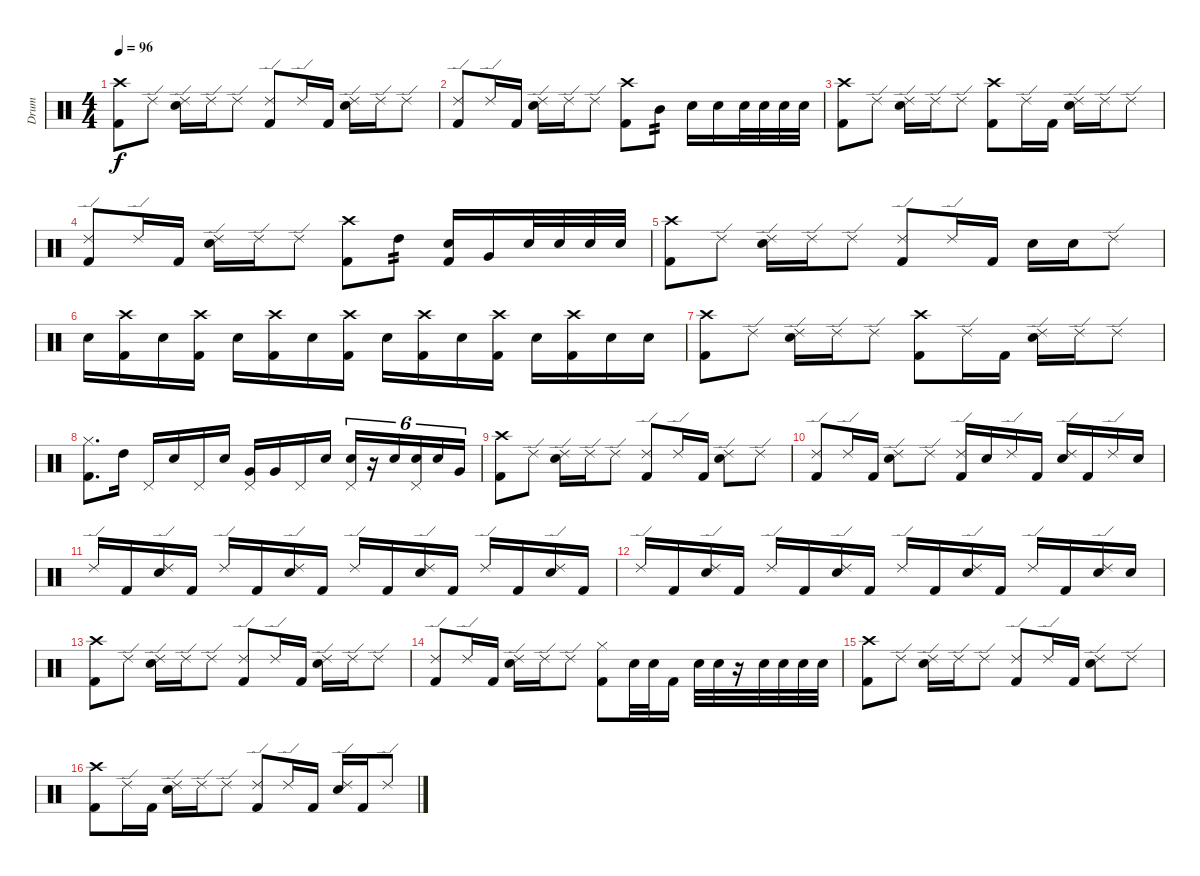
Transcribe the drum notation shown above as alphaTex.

\track ("Drum" "Drum") {instrument percussion}
\staff {score}
\articulation defaults
\ts (4 4)
\tempo 96
\clef neutral
\ks c
("Crash high (hit)" "Kick (hit) 2").8{dy f} "Ride (edge) 2".8 ("Ride (edge) 2" "Electric Snare (hit)").16 "Ride (edge) 2".16 "Ride (edge) 2".8 ("Ride (edge) 2" "Kick (hit) 2").8 "Ride (edge) 2".16 "Kick (hit) 2".16 ("Ride (edge) 2" "Electric Snare (hit)").16 "Ride (edge) 2".16 "Ride (edge) 2".8 |
("Ride (edge) 2" "Kick (hit) 2").8 "Ride (edge) 2".16 "Kick (hit) 2".16 ("Ride (edge) 2" "Electric Snare (hit)").16 "Ride (edge) 2".16 "Ride (edge) 2".8 ("Crash high (hit)" "Kick (hit) 2").8 "Mid Tom (hit)".8{tp 2} "Electric Snare (hit)".16 "Electric Snare (hit)".16 "Electric Snare (hit)".32 "Electric Snare (hit)".32 "Electric Snare (hit)".32 "Electric Snare (hit)".32 |
("Crash high (hit)" "Kick (hit) 2").8 "Ride (edge) 2".8 ("Ride (edge) 2" "Electric Snare (hit)").16 "Ride (edge) 2".16 "Ride (edge) 2".8 ("Crash high (hit)" "Kick (hit) 2").8 "Ride (edge) 2".16 "Kick (hit) 2".16 ("Ride (edge) 2" "Electric Snare (hit)").16 "Ride (edge) 2".16 "Ride (edge) 2".8 |
("Ride (edge) 2" "Kick (hit) 2").8 "Ride (edge) 2".16 "Kick (hit) 2".16 ("Ride (edge) 2" "Electric Snare (hit)").16 "Ride (edge) 2".16 "Ride (edge) 2".8 ("Crash high (hit)" "Kick (hit) 2").8 "High Tom (hit)".8{tp 2} ("Electric Snare (hit)" "Kick (hit) 2").16 "Very Low Tom (hit)".16 "Electric Snare (hit)".32 "Electric Snare (hit)".32 "Electric Snare (hit)".32 "Electric Snare (hit)".32 |
("Crash high (hit)" "Kick (hit) 2").8 "Ride (edge) 2".8 ("Ride (edge) 2" "Electric Snare (hit)").16 "Ride (edge) 2".16 "Ride (edge) 2".8 ("Ride (edge) 2" "Kick (hit) 2").8 "Ride (edge) 2".16 "Kick (hit) 2".16 "Electric Snare (hit)".16 "Electric Snare (hit)".16 "Ride (edge) 2".8 |
"Electric Snare (hit)".16 ("Crash high (hit)" "Kick (hit) 2").16 "Electric Snare (hit)".16 ("Crash high (hit)" "Kick (hit) 2").16 "Electric Snare (hit)".16 ("Crash high (hit)" "Kick (hit) 2").16 "Electric Snare (hit)".16 ("Crash high (hit)" "Kick (hit) 2").16 "Electric Snare (hit)".16 ("Crash high (hit)" "Kick (hit) 2").16 "Electric Snare (hit)".16 ("Crash high (hit)" "Kick (hit) 2").16 "Electric Snare (hit)".16 ("Crash high (hit)" "Kick (hit) 2").16 "Electric Snare (hit)".16 "Electric Snare (hit)".16 |
("Crash high (hit)" "Kick (hit) 2").8 "Ride (edge) 2".8 ("Ride (edge) 2" "Electric Snare (hit)").16 "Ride (edge) 2".16 "Ride (edge) 2".8 ("Crash high (hit)" "Kick (hit) 2").8 "Ride (edge) 2".16 "Kick (hit) 2".16 ("Ride (edge) 2" "Electric Snare (hit)").16 "Ride (edge) 2".16 "Ride (edge) 2".8 |
("Hi-Hat (closed)" "Kick (hit) 2").8{d} "High Tom (hit)".16 "Pedal Hi-Hat (hit)".16 "Electric Snare (hit)".16 "Pedal Hi-Hat (hit)".16 "Electric Snare (hit)".16 ("Very Low Tom (hit)" "Pedal Hi-Hat (hit)").16 "Very Low Tom (hit)".16 "Pedal Hi-Hat (hit)".16 "Electric Snare (hit)".16 ("Electric Snare (hit)" "Pedal Hi-Hat (hit)").16{tu (6 4)} r.16{tu (6 4)} "Electric Snare (hit)".16{tu (6 4)} ("Electric Snare (hit)" "Pedal Hi-Hat (hit)").16{tu (6 4)} "Electric Snare (hit)".16{tu (6 4)} "Very Low Tom (hit)".16{tu (6 4)} |
("Crash high (hit)" "Kick (hit) 2").8 "Ride (edge) 2".8 ("Ride (edge) 2" "Electric Snare (hit)").16 "Ride (edge) 2".16 "Ride (edge) 2".8 ("Ride (edge) 2" "Kick (hit) 2").8 "Ride (edge) 2".16 "Kick (hit) 2".16 ("Ride (edge) 2" "Electric Snare (hit)").8 "Ride (edge) 2".8 |
("Ride (edge) 2" "Kick (hit) 2").8 "Ride (edge) 2".16 "Kick (hit) 2".16 ("Ride (edge) 2" "Electric Snare (hit)").8 "Ride (edge) 2".8 ("Ride (edge) 2" "Kick (hit) 2").16 "Electric Snare (hit)".16 "Ride (edge) 2".16 "Kick (hit) 2".16 ("Ride (edge) 2" "Electric Snare (hit)").16 "Kick (hit) 2".16 "Ride (edge) 2".16 "Electric Snare (hit)".16 |
"Ride (edge) 2".16 "Kick (hit) 2".16 ("Ride (edge) 2" "Electric Snare (hit)").16 "Kick (hit) 2".16 "Ride (edge) 2".16 "Kick (hit) 2".16 ("Ride (edge) 2" "Electric Snare (hit)").16 "Kick (hit) 2".16 "Ride (edge) 2".16 "Kick (hit) 2".16 ("Ride (edge) 2" "Electric Snare (hit)").16 "Kick (hit) 2".16 "Ride (edge) 2".16 "Kick (hit) 2".16 ("Ride (edge) 2" "Electric Snare (hit)").16 "Kick (hit) 2".16 |
"Ride (edge) 2".16 "Kick (hit) 2".16 ("Ride (edge) 2" "Electric Snare (hit)").16 "Kick (hit) 2".16 "Ride (edge) 2".16 "Kick (hit) 2".16 ("Ride (edge) 2" "Electric Snare (hit)").16 "Kick (hit) 2".16 "Ride (edge) 2".16 "Kick (hit) 2".16 ("Ride (edge) 2" "Electric Snare (hit)").16 "Kick (hit) 2".16 "Ride (edge) 2".16 "Kick (hit) 2".16 ("Ride (edge) 2" "Electric Snare (hit)").16 "Electric Snare (hit)".16 |
("Crash high (hit)" "Kick (hit) 2").8 "Ride (edge) 2".8 ("Ride (edge) 2" "Electric Snare (hit)").16 "Ride (edge) 2".16 "Ride (edge) 2".8 ("Ride (edge) 2" "Kick (hit) 2").8 "Ride (edge) 2".16 "Kick (hit) 2".16 ("Ride (edge) 2" "Electric Snare (hit)").16 "Ride (edge) 2".16 "Ride (edge) 2".8 |
("Ride (edge) 2" "Kick (hit) 2").8 "Ride (edge) 2".16 "Kick (hit) 2".16 ("Ride (edge) 2" "Electric Snare (hit)").16 "Ride (edge) 2".16 "Ride (edge) 2".8 ("Hi-Hat (closed)" "Kick (hit) 2").8 "Electric Snare (hit)".32 "Electric Snare (hit)".32 "Kick (hit) 2".16 "Electric Snare (hit)".32 "Electric Snare (hit)".32 r.16 "Electric Snare (hit)".32 "Electric Snare (hit)".32 "Electric Snare (hit)".32 "Electric Snare (hit)".32 |
("Crash high (hit)" "Kick (hit) 2").8 "Ride (edge) 2".8 ("Ride (edge) 2" "Electric Snare (hit)").16 "Ride (edge) 2".16 "Ride (edge) 2".8 ("Ride (edge) 2" "Kick (hit) 2").8 "Ride (edge) 2".16 "Kick (hit) 2".16 ("Ride (edge) 2" "Electric Snare (hit)").8 "Ride (edge) 2".8 |
("Crash high (hit)" "Kick (hit) 2").8 "Ride (edge) 2".16 "Kick (hit) 2".16 ("Ride (edge) 2" "Electric Snare (hit)").16 "Ride (edge) 2".16 "Ride (edge) 2".8 ("Ride (edge) 2" "Kick (hit) 2").8 "Ride (edge) 2".16 "Kick (hit) 2".16 ("Ride (edge) 2" "Electric Snare (hit)").16 "Kick (hit) 2".16 "Ride (edge) 2".8
